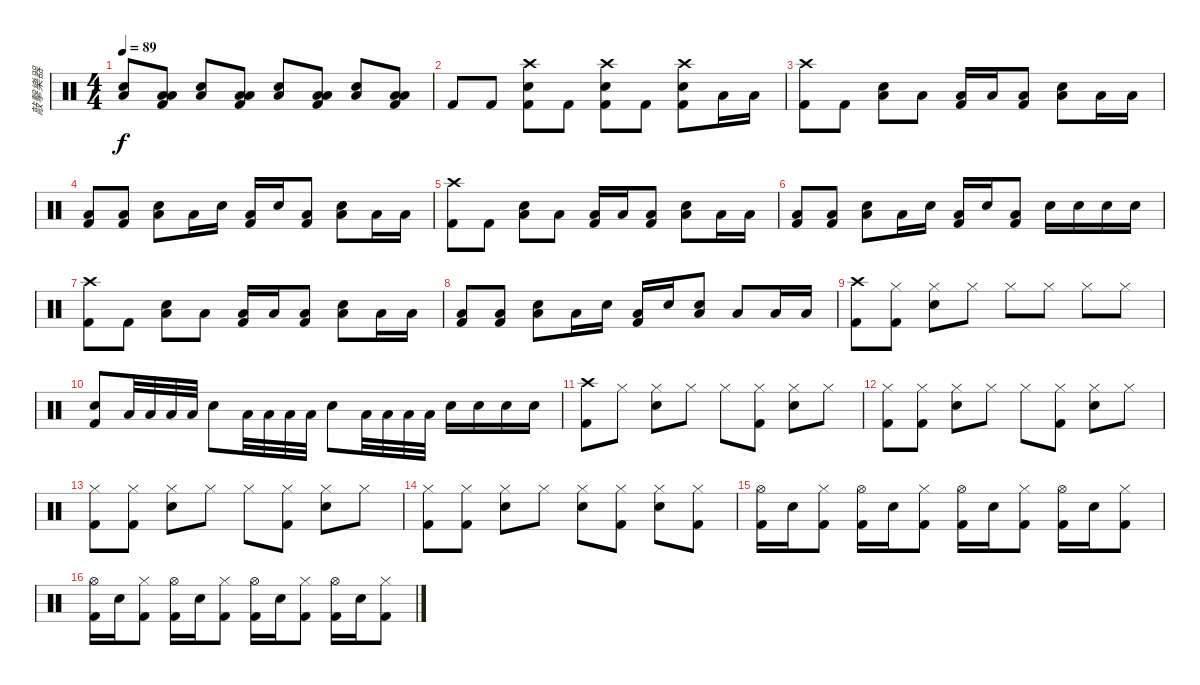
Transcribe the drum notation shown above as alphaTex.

\track ("敲擊樂器" "敲擊樂器") {instrument percussion}
\staff {score}
\articulation defaults
\ts (4 4)
\tempo 89
\clef neutral
\ks c
("Snare (hit) 2" "Low Floor Tom (hit)").8{dy f} ("Low Tom (hit)" "Low Floor Tom (hit)" "Kick (hit) 2").8 ("Snare (hit) 2" "Low Floor Tom (hit)").8 ("Low Tom (hit)" "Low Floor Tom (hit)" "Kick (hit) 2").8 ("Snare (hit) 2" "Low Floor Tom (hit)").8 ("Low Tom (hit)" "Low Floor Tom (hit)" "Kick (hit) 2").8 ("Snare (hit) 2" "Low Floor Tom (hit)").8 ("Low Tom (hit)" "Low Floor Tom (hit)" "Kick (hit) 2").8 |
"Kick (hit) 2".8 "Kick (hit) 2".8 ("Crash high (hit)" "Snare (hit) 2" "Kick (hit) 2").8 "Kick (hit) 2".8 ("Crash high (hit)" "Snare (hit) 2" "Kick (hit) 2").8 "Kick (hit) 2".8 ("Crash high (hit)" "Snare (hit) 2" "Kick (hit) 2").8 "Low Tom (hit)".16 "Low Tom (hit)".16 |
("Crash high (hit)" "Kick (hit) 2").8 "Kick (hit) 2".8 ("Snare (hit) 2" "Low Floor Tom (hit)").8 "Low Floor Tom (hit)".8 ("Low Floor Tom (hit)" "Kick (hit) 2").16 "Low Floor Tom (hit)".16 ("Low Floor Tom (hit)" "Kick (hit) 2").8 ("Snare (hit) 2" "Low Floor Tom (hit)").8 "Low Floor Tom (hit)".16 "Low Floor Tom (hit)".16 |
("Low Floor Tom (hit)" "Kick (hit) 2").8 ("Low Floor Tom (hit)" "Kick (hit) 2").8 ("Snare (hit) 2" "Low Floor Tom (hit)").8 "Low Floor Tom (hit)".16 "Snare (hit) 2".16 ("Low Floor Tom (hit)" "Kick (hit) 2").16 "Snare (hit) 2".16 ("Low Floor Tom (hit)" "Kick (hit) 2").8 ("Snare (hit) 2" "Low Floor Tom (hit)").8 "Low Floor Tom (hit)".16 "Low Floor Tom (hit)".16 |
("Crash high (hit)" "Kick (hit) 2").8 "Kick (hit) 2".8 ("Snare (hit) 2" "Low Floor Tom (hit)").8 "Low Floor Tom (hit)".8 ("Low Floor Tom (hit)" "Kick (hit) 2").16 "Low Floor Tom (hit)".16 ("Low Floor Tom (hit)" "Kick (hit) 2").8 ("Snare (hit) 2" "Low Floor Tom (hit)").8 "Low Floor Tom (hit)".16 "Low Floor Tom (hit)".16 |
("Low Floor Tom (hit)" "Kick (hit) 2").8 ("Low Floor Tom (hit)" "Kick (hit) 2").8 ("Snare (hit) 2" "Low Floor Tom (hit)").8 "Low Floor Tom (hit)".16 "Snare (hit) 2".16 ("Low Floor Tom (hit)" "Kick (hit) 2").16 "Snare (hit) 2".16 ("Low Floor Tom (hit)" "Kick (hit) 2").8 "Snare (hit) 2".16 "Snare (hit) 2".16 "Snare (hit) 2".16 "Snare (hit) 2".16 |
("Crash high (hit)" "Kick (hit) 2").8 "Kick (hit) 2".8 ("Snare (hit) 2" "Low Floor Tom (hit)").8 "Low Floor Tom (hit)".8 ("Low Floor Tom (hit)" "Kick (hit) 2").16 "Low Floor Tom (hit)".16 ("Low Floor Tom (hit)" "Kick (hit) 2").8 ("Snare (hit) 2" "Low Floor Tom (hit)").8 "Low Floor Tom (hit)".16 "Low Floor Tom (hit)".16 |
("Low Floor Tom (hit)" "Kick (hit) 2").8 ("Low Floor Tom (hit)" "Kick (hit) 2").8 ("Snare (hit) 2" "Low Floor Tom (hit)").8 "Low Floor Tom (hit)".16 "Snare (hit) 2".16 ("Low Floor Tom (hit)" "Kick (hit) 2").16 "Snare (hit) 2".16 ("Snare (hit) 2" "Low Floor Tom (hit)").8 "Low Floor Tom (hit)".8 "Low Tom (hit)".16 "Low Tom (hit)".16 |
("Crash high (hit)" "Kick (hit) 2").8 ("Hi-Hat (closed)" "Kick (hit) 2").8 ("Hi-Hat (closed)" "Snare (hit) 2").8 "Hi-Hat (closed)".8 "Hi-Hat (closed)".8 "Hi-Hat (closed)".8 "Hi-Hat (closed)".8 "Hi-Hat (closed)".8 |
("Snare (hit) 2" "Kick (hit) 2").8 "Low Tom (hit)".32 "Low Tom (hit)".32 "Low Tom (hit)".32 "Low Tom (hit)".32 "Snare (hit) 2".8 "Low Tom (hit)".32 "Low Tom (hit)".32 "Low Tom (hit)".32 "Low Tom (hit)".32 "Snare (hit) 2".8 "Low Tom (hit)".32 "Low Tom (hit)".32 "Low Tom (hit)".32 "Low Tom (hit)".32 "Snare (hit) 2".16 "Snare (hit) 2".16 "Snare (hit) 2".16 "Snare (hit) 2".16 |
("Crash high (hit)" "Kick (hit) 2").8 "Hi-Hat (closed)".8 ("Hi-Hat (closed)" "Snare (hit) 2").8 "Hi-Hat (closed)".8 "Hi-Hat (closed)".8 ("Hi-Hat (closed)" "Kick (hit) 2").8 ("Hi-Hat (closed)" "Snare (hit) 2").8 "Hi-Hat (closed)".8 |
("Hi-Hat (closed)" "Kick (hit) 2").8 ("Hi-Hat (closed)" "Kick (hit) 2").8 ("Hi-Hat (closed)" "Snare (hit) 2").8 "Hi-Hat (closed)".8 "Hi-Hat (closed)".8 ("Hi-Hat (closed)" "Kick (hit) 2").8 ("Hi-Hat (closed)" "Snare (hit) 2").8 "Hi-Hat (closed)".8 |
("Hi-Hat (closed)" "Kick (hit) 2").8 ("Hi-Hat (closed)" "Kick (hit) 2").8 ("Hi-Hat (closed)" "Snare (hit) 2").8 "Hi-Hat (closed)".8 "Hi-Hat (closed)".8 ("Hi-Hat (closed)" "Kick (hit) 2").8 ("Hi-Hat (closed)" "Snare (hit) 2").8 "Hi-Hat (closed)".8 |
("Hi-Hat (closed)" "Kick (hit) 2").8 ("Hi-Hat (closed)" "Kick (hit) 2").8 ("Hi-Hat (closed)" "Snare (hit) 2").8 "Hi-Hat (closed)".8 ("Hi-Hat (closed)" "Snare (hit) 2").8 ("Hi-Hat (closed)" "Kick (hit) 2").8 ("Hi-Hat (closed)" "Snare (hit) 2").8 ("Hi-Hat (closed)" "Kick (hit) 2").8 |
("Hi-Hat (open)" "Kick (hit) 2").16 "Snare (hit) 2".16 ("Hi-Hat (closed)" "Kick (hit) 2").8 ("Hi-Hat (open)" "Kick (hit) 2").16 "Snare (hit) 2".16 ("Hi-Hat (closed)" "Kick (hit) 2").8 ("Hi-Hat (open)" "Kick (hit) 2").16 "Snare (hit) 2".16 ("Hi-Hat (closed)" "Kick (hit) 2").8 ("Hi-Hat (open)" "Kick (hit) 2").16 "Snare (hit) 2".16 ("Hi-Hat (closed)" "Kick (hit) 2").8 |
("Hi-Hat (open)" "Kick (hit) 2").16 "Snare (hit) 2".16 ("Hi-Hat (closed)" "Kick (hit) 2").8 ("Hi-Hat (open)" "Kick (hit) 2").16 "Snare (hit) 2".16 ("Hi-Hat (closed)" "Kick (hit) 2").8 ("Hi-Hat (open)" "Kick (hit) 2").16 "Snare (hit) 2".16 ("Hi-Hat (closed)" "Kick (hit) 2").8 ("Hi-Hat (open)" "Kick (hit) 2").16 "Snare (hit) 2".16 ("Hi-Hat (closed)" "Kick (hit) 2").8
